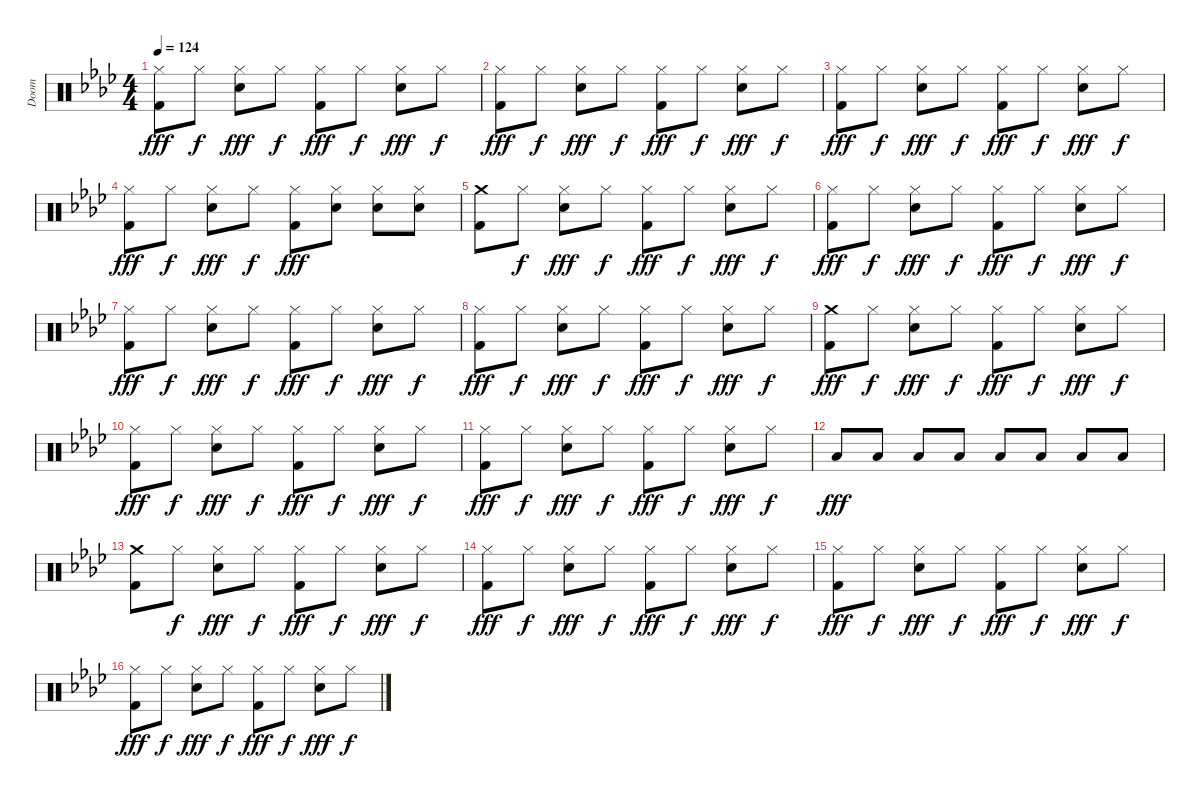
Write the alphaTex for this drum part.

\track ("Doom" "Doom") {instrument percussion}
\staff {score}
\articulation defaults
\ts (4 4)
\tempo 124
\clef neutral
\ks ab
("Hi-Hat (closed)" "Kick (hit) 2").8{dy fff} "Hi-Hat (closed)".8{dy f} ("Hi-Hat (closed)" "Snare (hit) 2").8{dy fff} "Hi-Hat (closed)".8{dy f} ("Hi-Hat (closed)" "Kick (hit) 2").8{dy fff} "Hi-Hat (closed)".8{dy f} ("Hi-Hat (closed)" "Snare (hit) 2").8{dy fff} "Hi-Hat (closed)".8{dy f} |
("Hi-Hat (closed)" "Kick (hit) 2").8{dy fff} "Hi-Hat (closed)".8{dy f} ("Hi-Hat (closed)" "Snare (hit) 2").8{dy fff} "Hi-Hat (closed)".8{dy f} ("Hi-Hat (closed)" "Kick (hit) 2").8{dy fff} "Hi-Hat (closed)".8{dy f} ("Hi-Hat (closed)" "Snare (hit) 2").8{dy fff} "Hi-Hat (closed)".8{dy f} |
("Hi-Hat (closed)" "Kick (hit) 2").8{dy fff} "Hi-Hat (closed)".8{dy f} ("Hi-Hat (closed)" "Snare (hit) 2").8{dy fff} "Hi-Hat (closed)".8{dy f} ("Hi-Hat (closed)" "Kick (hit) 2").8{dy fff} "Hi-Hat (closed)".8{dy f} ("Hi-Hat (closed)" "Snare (hit) 2").8{dy fff} "Hi-Hat (closed)".8{dy f} |
("Hi-Hat (closed)" "Kick (hit) 2").8{dy fff} "Hi-Hat (closed)".8{dy f} ("Hi-Hat (closed)" "Snare (hit) 2").8{dy fff} "Hi-Hat (closed)".8{dy f} ("Hi-Hat (closed)" "Kick (hit) 2").8{dy fff} ("Hi-Hat (closed)" "Snare (hit) 2").8 ("Hi-Hat (closed)" "Snare (hit) 2").8 ("Hi-Hat (closed)" "Snare (hit) 2").8 |
("Crash medium (hit)" "Kick (hit) 2").8 "Hi-Hat (closed)".8{dy f} ("Hi-Hat (closed)" "Snare (hit) 2").8{dy fff} "Hi-Hat (closed)".8{dy f} ("Hi-Hat (closed)" "Kick (hit) 2").8{dy fff} "Hi-Hat (closed)".8{dy f} ("Hi-Hat (closed)" "Snare (hit) 2").8{dy fff} "Hi-Hat (closed)".8{dy f} |
("Hi-Hat (closed)" "Kick (hit) 2").8{dy fff} "Hi-Hat (closed)".8{dy f} ("Hi-Hat (closed)" "Snare (hit) 2").8{dy fff} "Hi-Hat (closed)".8{dy f} ("Hi-Hat (closed)" "Kick (hit) 2").8{dy fff} "Hi-Hat (closed)".8{dy f} ("Hi-Hat (closed)" "Snare (hit) 2").8{dy fff} "Hi-Hat (closed)".8{dy f} |
("Hi-Hat (closed)" "Kick (hit) 2").8{dy fff} "Hi-Hat (closed)".8{dy f} ("Hi-Hat (closed)" "Snare (hit) 2").8{dy fff} "Hi-Hat (closed)".8{dy f} ("Hi-Hat (closed)" "Kick (hit) 2").8{dy fff} "Hi-Hat (closed)".8{dy f} ("Hi-Hat (closed)" "Snare (hit) 2").8{dy fff} "Hi-Hat (closed)".8{dy f} |
("Hi-Hat (closed)" "Kick (hit) 2").8{dy fff} "Hi-Hat (closed)".8{dy f} ("Hi-Hat (closed)" "Snare (hit) 2").8{dy fff} "Hi-Hat (closed)".8{dy f} ("Hi-Hat (closed)" "Kick (hit) 2").8{dy fff} "Hi-Hat (closed)".8{dy f} ("Hi-Hat (closed)" "Snare (hit) 2").8{dy fff} "Hi-Hat (closed)".8{dy f} |
("Crash medium (hit)" "Kick (hit) 2").8{dy fff} "Hi-Hat (closed)".8{dy f} ("Hi-Hat (closed)" "Snare (hit) 2").8{dy fff} "Hi-Hat (closed)".8{dy f} ("Hi-Hat (closed)" "Kick (hit) 2").8{dy fff} "Hi-Hat (closed)".8{dy f} ("Hi-Hat (closed)" "Snare (hit) 2").8{dy fff} "Hi-Hat (closed)".8{dy f} |
("Hi-Hat (closed)" "Kick (hit) 2").8{dy fff} "Hi-Hat (closed)".8{dy f} ("Hi-Hat (closed)" "Snare (hit) 2").8{dy fff} "Hi-Hat (closed)".8{dy f} ("Hi-Hat (closed)" "Kick (hit) 2").8{dy fff} "Hi-Hat (closed)".8{dy f} ("Hi-Hat (closed)" "Snare (hit) 2").8{dy fff} "Hi-Hat (closed)".8{dy f} |
("Hi-Hat (closed)" "Kick (hit) 2").8{dy fff} "Hi-Hat (closed)".8{dy f} ("Hi-Hat (closed)" "Snare (hit) 2").8{dy fff} "Hi-Hat (closed)".8{dy f} ("Hi-Hat (closed)" "Kick (hit) 2").8{dy fff} "Hi-Hat (closed)".8{dy f} ("Hi-Hat (closed)" "Snare (hit) 2").8{dy fff} "Hi-Hat (closed)".8{dy f} |
"Low Floor Tom (hit)".8{dy fff} "Low Floor Tom (hit)".8 "Low Floor Tom (hit)".8 "Low Floor Tom (hit)".8 "Low Floor Tom (hit)".8 "Low Floor Tom (hit)".8 "Low Floor Tom (hit)".8 "Low Floor Tom (hit)".8 |
("Crash medium (hit)" "Kick (hit) 2").8 "Hi-Hat (closed)".8{dy f} ("Hi-Hat (closed)" "Snare (hit) 2").8{dy fff} "Hi-Hat (closed)".8{dy f} ("Hi-Hat (closed)" "Kick (hit) 2").8{dy fff} "Hi-Hat (closed)".8{dy f} ("Hi-Hat (closed)" "Snare (hit) 2").8{dy fff} "Hi-Hat (closed)".8{dy f} |
("Hi-Hat (closed)" "Kick (hit) 2").8{dy fff} "Hi-Hat (closed)".8{dy f} ("Hi-Hat (closed)" "Snare (hit) 2").8{dy fff} "Hi-Hat (closed)".8{dy f} ("Hi-Hat (closed)" "Kick (hit) 2").8{dy fff} "Hi-Hat (closed)".8{dy f} ("Hi-Hat (closed)" "Snare (hit) 2").8{dy fff} "Hi-Hat (closed)".8{dy f} |
("Hi-Hat (closed)" "Kick (hit) 2").8{dy fff} "Hi-Hat (closed)".8{dy f} ("Hi-Hat (closed)" "Snare (hit) 2").8{dy fff} "Hi-Hat (closed)".8{dy f} ("Hi-Hat (closed)" "Kick (hit) 2").8{dy fff} "Hi-Hat (closed)".8{dy f} ("Hi-Hat (closed)" "Snare (hit) 2").8{dy fff} "Hi-Hat (closed)".8{dy f} |
("Hi-Hat (closed)" "Kick (hit) 2").8{dy fff} "Hi-Hat (closed)".8{dy f} ("Hi-Hat (closed)" "Snare (hit) 2").8{dy fff} "Hi-Hat (closed)".8{dy f} ("Hi-Hat (closed)" "Kick (hit) 2").8{dy fff} "Hi-Hat (closed)".8{dy f} ("Hi-Hat (closed)" "Snare (hit) 2").8{dy fff} "Hi-Hat (closed)".8{dy f}
